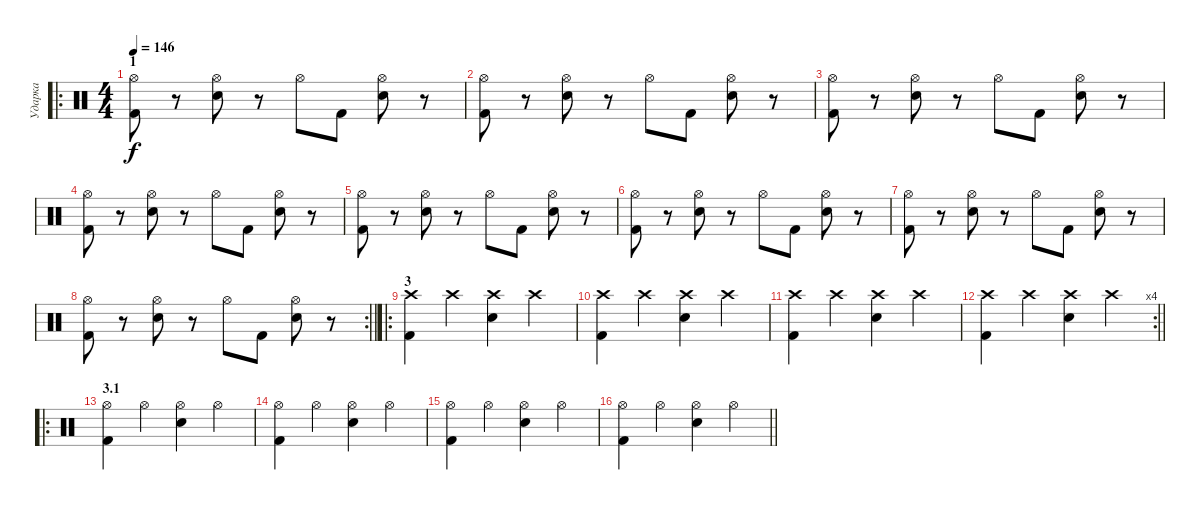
\track ("Ударка" "Ударка") {instrument percussion}
\staff {score}
\articulation defaults
\ro
\ts (4 4)
\section ("" "1")
\tempo 146
\clef neutral
\ks c
("Hi-Hat (open)" "Kick (hit) 2").8{dy f} r.8 ("Hi-Hat (open)" "Electric Snare (hit)").8 r.8 "Hi-Hat (open)".8 "Kick (hit) 2".8 ("Hi-Hat (open)" "Electric Snare (hit)").8 r.8 |
("Hi-Hat (open)" "Kick (hit) 2").8 r.8 ("Hi-Hat (open)" "Electric Snare (hit)").8 r.8 "Hi-Hat (open)".8 "Kick (hit) 2".8 ("Hi-Hat (open)" "Electric Snare (hit)").8 r.8 |
("Hi-Hat (open)" "Kick (hit) 2").8 r.8 ("Hi-Hat (open)" "Electric Snare (hit)").8 r.8 "Hi-Hat (open)".8 "Kick (hit) 2".8 ("Hi-Hat (open)" "Electric Snare (hit)").8 r.8 |
("Hi-Hat (open)" "Kick (hit) 2").8 r.8 ("Hi-Hat (open)" "Electric Snare (hit)").8 r.8 "Hi-Hat (open)".8 "Kick (hit) 2".8 ("Hi-Hat (open)" "Electric Snare (hit)").8 r.8 |
("Hi-Hat (open)" "Kick (hit) 2").8 r.8 ("Hi-Hat (open)" "Electric Snare (hit)").8 r.8 "Hi-Hat (open)".8 "Kick (hit) 2".8 ("Hi-Hat (open)" "Electric Snare (hit)").8 r.8 |
("Hi-Hat (open)" "Kick (hit) 2").8 r.8 ("Hi-Hat (open)" "Electric Snare (hit)").8 r.8 "Hi-Hat (open)".8 "Kick (hit) 2".8 ("Hi-Hat (open)" "Electric Snare (hit)").8 r.8 |
("Hi-Hat (open)" "Kick (hit) 2").8 r.8 ("Hi-Hat (open)" "Electric Snare (hit)").8 r.8 "Hi-Hat (open)".8 "Kick (hit) 2".8 ("Hi-Hat (open)" "Electric Snare (hit)").8 r.8 |
\rc 2
\barLineRight lightlight
("Hi-Hat (open)" "Kick (hit) 2").8 r.8 ("Hi-Hat (open)" "Electric Snare (hit)").8 r.8 "Hi-Hat (open)".8 "Kick (hit) 2".8 ("Hi-Hat (open)" "Electric Snare (hit)").8 r.8 |
\ro
\section ("" "3")
("Crash high (hit)" "Kick (hit) 2").4 "Crash high (hit)".4 ("Crash high (hit)" "Electric Snare (hit)").4 "Crash high (hit)".4 |
("Crash high (hit)" "Kick (hit) 2").4 "Crash high (hit)".4 ("Crash high (hit)" "Electric Snare (hit)").4 "Crash high (hit)".4 |
("Crash high (hit)" "Kick (hit) 2").4 "Crash high (hit)".4 ("Crash high (hit)" "Electric Snare (hit)").4 "Crash high (hit)".4 |
\rc 4
\barLineRight lightlight
("Crash high (hit)" "Kick (hit) 2").4 "Crash high (hit)".4 ("Crash high (hit)" "Electric Snare (hit)").4 "Crash high (hit)".4 |
\ro
\section ("" "3.1")
("Hi-Hat (open)" "Kick (hit) 2").4 "Hi-Hat (open)".4 ("Hi-Hat (open)" "Electric Snare (hit)").4 "Hi-Hat (open)".4 |
("Hi-Hat (open)" "Kick (hit) 2").4 "Hi-Hat (open)".4 ("Hi-Hat (open)" "Electric Snare (hit)").4 "Hi-Hat (open)".4 |
("Hi-Hat (open)" "Kick (hit) 2").4 "Hi-Hat (open)".4 ("Hi-Hat (open)" "Electric Snare (hit)").4 "Hi-Hat (open)".4 |
\barLineRight lightlight
("Hi-Hat (open)" "Kick (hit) 2").4 "Hi-Hat (open)".4 ("Hi-Hat (open)" "Electric Snare (hit)").4 "Hi-Hat (open)".4
